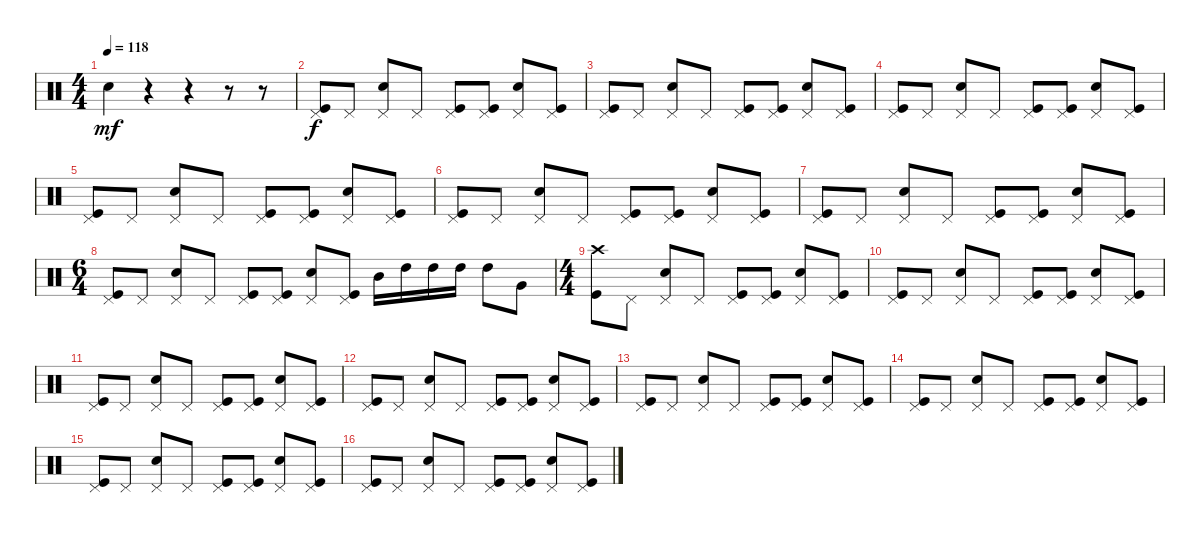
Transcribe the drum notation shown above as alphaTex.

\track "" {instrument percussion}
\staff {score}
\articulation defaults
\ts (4 4)
\tempo 118
\clef neutral
\ks c "Snare (hit) 2".4{dy mf}
r.4 r.4 r.8 r.8 |
("Pedal Hi-Hat (hit)" "Kick (hit)").8{dy f} "Pedal Hi-Hat (hit)".8 ("Pedal Hi-Hat (hit)" "Snare (hit) 2").8 "Pedal Hi-Hat (hit)".8 ("Pedal Hi-Hat (hit)" "Kick (hit)").8 ("Pedal Hi-Hat (hit)" "Kick (hit)").8 ("Pedal Hi-Hat (hit)" "Snare (hit) 2").8 ("Pedal Hi-Hat (hit)" "Kick (hit)").8 |
("Pedal Hi-Hat (hit)" "Kick (hit)").8 "Pedal Hi-Hat (hit)".8 ("Pedal Hi-Hat (hit)" "Snare (hit) 2").8 "Pedal Hi-Hat (hit)".8 ("Pedal Hi-Hat (hit)" "Kick (hit)").8 ("Pedal Hi-Hat (hit)" "Kick (hit)").8 ("Pedal Hi-Hat (hit)" "Snare (hit) 2").8 ("Pedal Hi-Hat (hit)" "Kick (hit)").8 |
("Pedal Hi-Hat (hit)" "Kick (hit)").8 "Pedal Hi-Hat (hit)".8 ("Pedal Hi-Hat (hit)" "Snare (hit) 2").8 "Pedal Hi-Hat (hit)".8 ("Pedal Hi-Hat (hit)" "Kick (hit)").8 ("Pedal Hi-Hat (hit)" "Kick (hit)").8 ("Pedal Hi-Hat (hit)" "Snare (hit) 2").8 ("Pedal Hi-Hat (hit)" "Kick (hit)").8 |
("Pedal Hi-Hat (hit)" "Kick (hit)").8 "Pedal Hi-Hat (hit)".8 ("Pedal Hi-Hat (hit)" "Snare (hit) 2").8 "Pedal Hi-Hat (hit)".8 ("Pedal Hi-Hat (hit)" "Kick (hit)").8 ("Pedal Hi-Hat (hit)" "Kick (hit)").8 ("Pedal Hi-Hat (hit)" "Snare (hit) 2").8 ("Pedal Hi-Hat (hit)" "Kick (hit)").8 |
("Pedal Hi-Hat (hit)" "Kick (hit)").8 "Pedal Hi-Hat (hit)".8 ("Pedal Hi-Hat (hit)" "Snare (hit) 2").8 "Pedal Hi-Hat (hit)".8 ("Pedal Hi-Hat (hit)" "Kick (hit)").8 ("Pedal Hi-Hat (hit)" "Kick (hit)").8 ("Pedal Hi-Hat (hit)" "Snare (hit) 2").8 ("Pedal Hi-Hat (hit)" "Kick (hit)").8 |
("Pedal Hi-Hat (hit)" "Kick (hit)").8 "Pedal Hi-Hat (hit)".8 ("Pedal Hi-Hat (hit)" "Snare (hit) 2").8 "Pedal Hi-Hat (hit)".8 ("Pedal Hi-Hat (hit)" "Kick (hit)").8 ("Pedal Hi-Hat (hit)" "Kick (hit)").8 ("Pedal Hi-Hat (hit)" "Snare (hit) 2").8 ("Pedal Hi-Hat (hit)" "Kick (hit)").8 |
\ts (6 4)
("Pedal Hi-Hat (hit)" "Kick (hit)").8 "Pedal Hi-Hat (hit)".8 ("Pedal Hi-Hat (hit)" "Snare (hit) 2").8 "Pedal Hi-Hat (hit)".8 ("Pedal Hi-Hat (hit)" "Kick (hit)").8 ("Pedal Hi-Hat (hit)" "Kick (hit)").8 ("Pedal Hi-Hat (hit)" "Snare (hit) 2").8 ("Pedal Hi-Hat (hit)" "Kick (hit)").8 "Mid Tom (hit)".16 "High Tom (hit)".16 "High Tom (hit)".16 "High Tom (hit)".16 "High Tom (hit)".8 "Very Low Tom (hit)".8 |
\ts (4 4)
("Crash high (hit)" "Kick (hit)").8 "Pedal Hi-Hat (hit)".8 ("Pedal Hi-Hat (hit)" "Snare (hit) 2").8 "Pedal Hi-Hat (hit)".8 ("Pedal Hi-Hat (hit)" "Kick (hit)").8 ("Pedal Hi-Hat (hit)" "Kick (hit)").8 ("Pedal Hi-Hat (hit)" "Snare (hit) 2").8 ("Pedal Hi-Hat (hit)" "Kick (hit)").8 |
("Pedal Hi-Hat (hit)" "Kick (hit)").8 "Pedal Hi-Hat (hit)".8 ("Pedal Hi-Hat (hit)" "Snare (hit) 2").8 "Pedal Hi-Hat (hit)".8 ("Pedal Hi-Hat (hit)" "Kick (hit)").8 ("Pedal Hi-Hat (hit)" "Kick (hit)").8 ("Pedal Hi-Hat (hit)" "Snare (hit) 2").8 ("Pedal Hi-Hat (hit)" "Kick (hit)").8 |
("Pedal Hi-Hat (hit)" "Kick (hit)").8 "Pedal Hi-Hat (hit)".8 ("Pedal Hi-Hat (hit)" "Snare (hit) 2").8 "Pedal Hi-Hat (hit)".8 ("Pedal Hi-Hat (hit)" "Kick (hit)").8 ("Pedal Hi-Hat (hit)" "Kick (hit)").8 ("Pedal Hi-Hat (hit)" "Snare (hit) 2").8 ("Pedal Hi-Hat (hit)" "Kick (hit)").8 |
("Pedal Hi-Hat (hit)" "Kick (hit)").8 "Pedal Hi-Hat (hit)".8 ("Pedal Hi-Hat (hit)" "Snare (hit) 2").8 "Pedal Hi-Hat (hit)".8 ("Pedal Hi-Hat (hit)" "Kick (hit)").8 ("Pedal Hi-Hat (hit)" "Kick (hit)").8 ("Pedal Hi-Hat (hit)" "Snare (hit) 2").8 ("Pedal Hi-Hat (hit)" "Kick (hit)").8 |
("Pedal Hi-Hat (hit)" "Kick (hit)").8 "Pedal Hi-Hat (hit)".8 ("Pedal Hi-Hat (hit)" "Snare (hit) 2").8 "Pedal Hi-Hat (hit)".8 ("Pedal Hi-Hat (hit)" "Kick (hit)").8 ("Pedal Hi-Hat (hit)" "Kick (hit)").8 ("Pedal Hi-Hat (hit)" "Snare (hit) 2").8 ("Pedal Hi-Hat (hit)" "Kick (hit)").8 |
("Pedal Hi-Hat (hit)" "Kick (hit)").8 "Pedal Hi-Hat (hit)".8 ("Pedal Hi-Hat (hit)" "Snare (hit) 2").8 "Pedal Hi-Hat (hit)".8 ("Pedal Hi-Hat (hit)" "Kick (hit)").8 ("Pedal Hi-Hat (hit)" "Kick (hit)").8 ("Pedal Hi-Hat (hit)" "Snare (hit) 2").8 ("Pedal Hi-Hat (hit)" "Kick (hit)").8 |
("Pedal Hi-Hat (hit)" "Kick (hit)").8 "Pedal Hi-Hat (hit)".8 ("Pedal Hi-Hat (hit)" "Snare (hit) 2").8 "Pedal Hi-Hat (hit)".8 ("Pedal Hi-Hat (hit)" "Kick (hit)").8 ("Pedal Hi-Hat (hit)" "Kick (hit)").8 ("Pedal Hi-Hat (hit)" "Snare (hit) 2").8 ("Pedal Hi-Hat (hit)" "Kick (hit)").8 |
("Pedal Hi-Hat (hit)" "Kick (hit)").8 "Pedal Hi-Hat (hit)".8 ("Pedal Hi-Hat (hit)" "Snare (hit) 2").8 "Pedal Hi-Hat (hit)".8 ("Pedal Hi-Hat (hit)" "Kick (hit)").8 ("Pedal Hi-Hat (hit)" "Kick (hit)").8 ("Pedal Hi-Hat (hit)" "Snare (hit) 2").8 ("Pedal Hi-Hat (hit)" "Kick (hit)").8
